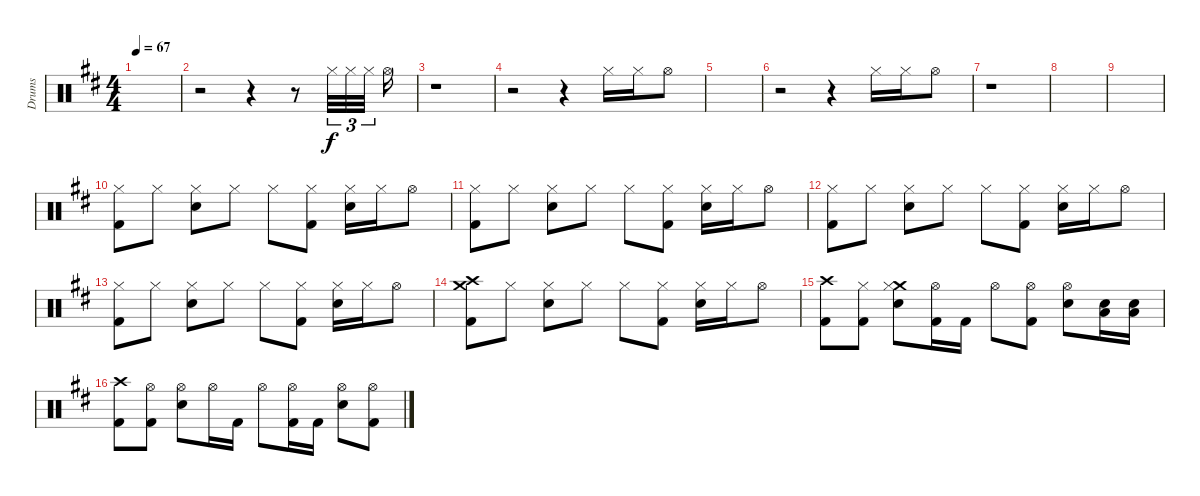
\track ("Drums" "Drums") {instrument percussion}
\staff {score}
\articulation defaults
\ts (4 4)
\tempo 67
\clef neutral
\ks bminor
|
r.2 r.4 r.8 "Hi-Hat (closed)".32{tu (3 2)} "Hi-Hat (closed)".32{tu (3 2)} "Hi-Hat (closed)".32{tu (3 2)} "Hi-Hat (open)".16 |
r.1 |
r.2 r.4 "Hi-Hat (closed)".16 "Hi-Hat (closed)".16 "Hi-Hat (open)".8 |
|
r.2 r.4 "Hi-Hat (closed)".16 "Hi-Hat (closed)".16 "Hi-Hat (open)".8 |
r.1 |
|
|
("Hi-Hat (closed)" "Kick (hit) 2").8 "Hi-Hat (closed)".8 ("Hi-Hat (closed)" "Electric Snare (hit)").8 "Hi-Hat (closed)".8 "Hi-Hat (closed)".8 ("Hi-Hat (closed)" "Kick (hit) 2").8 ("Hi-Hat (closed)" "Electric Snare (hit)").16 "Hi-Hat (closed)".16 "Hi-Hat (open)".8 |
("Hi-Hat (closed)" "Kick (hit) 2").8 "Hi-Hat (closed)".8 ("Hi-Hat (closed)" "Electric Snare (hit)").8 "Hi-Hat (closed)".8 "Hi-Hat (closed)".8 ("Hi-Hat (closed)" "Kick (hit) 2").8 ("Hi-Hat (closed)" "Electric Snare (hit)").16 "Hi-Hat (closed)".16 "Hi-Hat (open)".8 |
("Hi-Hat (closed)" "Kick (hit) 2").8 "Hi-Hat (closed)".8 ("Hi-Hat (closed)" "Electric Snare (hit)").8 "Hi-Hat (closed)".8 "Hi-Hat (closed)".8 ("Hi-Hat (closed)" "Kick (hit) 2").8 ("Hi-Hat (closed)" "Electric Snare (hit)").16 "Hi-Hat (closed)".16 "Hi-Hat (open)".8 |
("Hi-Hat (closed)" "Kick (hit) 2").8 "Hi-Hat (closed)".8 ("Hi-Hat (closed)" "Electric Snare (hit)").8 "Hi-Hat (closed)".8 "Hi-Hat (closed)".8 ("Hi-Hat (closed)" "Kick (hit) 2").8 ("Hi-Hat (closed)" "Electric Snare (hit)").16 "Hi-Hat (closed)".16 "Hi-Hat (open)".8 |
("Crash high (hit)" "Crash medium (hit)" "Kick (hit) 2").8 "Hi-Hat (closed)".8 ("Hi-Hat (closed)" "Electric Snare (hit)").8 "Hi-Hat (closed)".8 "Hi-Hat (closed)".8 ("Hi-Hat (closed)" "Kick (hit) 2").8 ("Hi-Hat (closed)" "Electric Snare (hit)").16 "Hi-Hat (closed)".16 "Hi-Hat (open)".8 |
("Crash high (hit)" "Kick (hit) 2").8 ("Hi-Hat (closed)" "Kick (hit) 2").8 ("Crash medium (hit)" "Hi-Hat (closed)" "Electric Snare (hit)").8 ("Hi-Hat (open)" "Kick (hit) 2").16 "Kick (hit) 2".16 "Hi-Hat (open)".8 ("Hi-Hat (open)" "Kick (hit) 2").8 ("Hi-Hat (open)" "Electric Snare (hit)").8 ("Electric Snare (hit)" "Low Floor Tom (hit)").16 ("Electric Snare (hit)" "Low Floor Tom (hit)").16 |
("Crash high (hit)" "Kick (hit) 2").8 ("Hi-Hat (open)" "Kick (hit) 2").8 ("Hi-Hat (open)" "Electric Snare (hit)").8 "Hi-Hat (open)".16 "Kick (hit) 2".16 "Hi-Hat (open)".8 ("Hi-Hat (open)" "Kick (hit) 2").16 "Kick (hit) 2".16 ("Hi-Hat (open)" "Electric Snare (hit)").8 ("Hi-Hat (open)" "Kick (hit) 2").8
